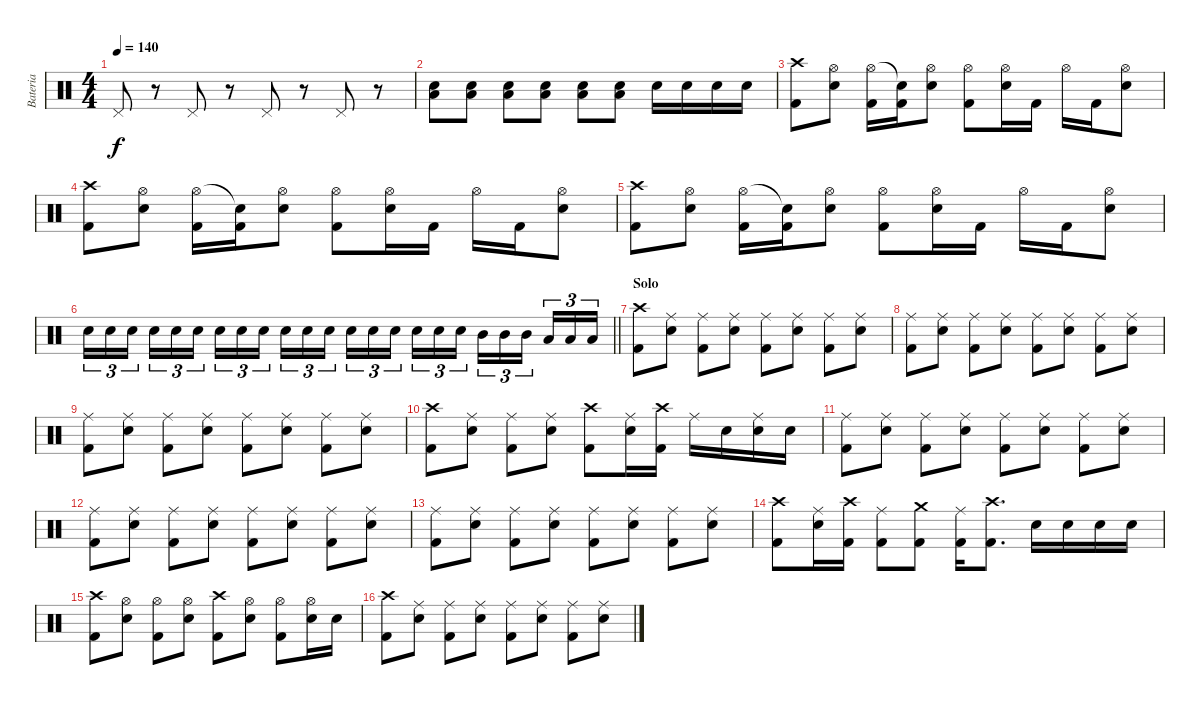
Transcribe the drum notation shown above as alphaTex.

\track ("Bateria" "Bateria") {instrument percussion}
\staff {score}
\articulation defaults
\ts (4 4)
\tempo 140
\clef neutral
\ks c "Pedal Hi-Hat (hit)".8{dy f}
r.8 "Pedal Hi-Hat (hit)".8 r.8 "Pedal Hi-Hat (hit)".8 r.8 "Pedal Hi-Hat (hit)".8 r.8 |
("Electric Snare (hit)" "Low Floor Tom (hit)").8 ("Electric Snare (hit)" "Low Floor Tom (hit)").8 ("Electric Snare (hit)" "Low Floor Tom (hit)").8 ("Electric Snare (hit)" "Low Floor Tom (hit)").8 ("Electric Snare (hit)" "Low Floor Tom (hit)").8 ("Electric Snare (hit)" "Low Floor Tom (hit)").8 "Electric Snare (hit)".16 "Electric Snare (hit)".16 "Electric Snare (hit)".16 "Electric Snare (hit)".16 |
("Crash high (hit)" "Kick (hit) 2").8 ("Hi-Hat (open)" "Electric Snare (hit)").8 ("Hi-Hat (open)" "Kick (hit) 2").16 ("Snare (hit)"{t} "Kick (hit) 2").16 ("Hi-Hat (open)" "Electric Snare (hit)").8 ("Hi-Hat (open)" "Kick (hit) 2").8 ("Hi-Hat (open)" "Electric Snare (hit)").16 "Kick (hit) 2".16 "Hi-Hat (open)".16 "Kick (hit) 2".16 ("Hi-Hat (open)" "Electric Snare (hit)").8 |
("Crash high (hit)" "Kick (hit) 2").8 ("Hi-Hat (open)" "Electric Snare (hit)").8 ("Hi-Hat (open)" "Kick (hit) 2").16 ("Snare (hit)"{t} "Kick (hit) 2").16 ("Hi-Hat (open)" "Electric Snare (hit)").8 ("Hi-Hat (open)" "Kick (hit) 2").8 ("Hi-Hat (open)" "Electric Snare (hit)").16 "Kick (hit) 2".16 "Hi-Hat (open)".16 "Kick (hit) 2".16 ("Hi-Hat (open)" "Electric Snare (hit)").8 |
("Crash high (hit)" "Kick (hit) 2").8 ("Hi-Hat (open)" "Electric Snare (hit)").8 ("Hi-Hat (open)" "Kick (hit) 2").16 ("Snare (hit)"{t} "Kick (hit) 2").16 ("Hi-Hat (open)" "Electric Snare (hit)").8 ("Hi-Hat (open)" "Kick (hit) 2").8 ("Hi-Hat (open)" "Electric Snare (hit)").16 "Kick (hit) 2".16 "Hi-Hat (open)".16 "Kick (hit) 2".16 ("Hi-Hat (open)" "Electric Snare (hit)").8 |
\barLineRight lightlight "Electric Snare (hit)".16{tu (3 2)} "Electric Snare (hit)".16{tu (3 2)} "Electric Snare (hit)".16{tu (3 2) beam splitsecondary} "Electric Snare (hit)".16{tu (3 2)} "Electric Snare (hit)".16{tu (3 2)} "Electric Snare (hit)".16{tu (3 2)} "Electric Snare (hit)".16{tu (3 2)} "Electric Snare (hit)".16{tu (3 2)} "Electric Snare (hit)".16{tu (3 2) beam splitsecondary} "Electric Snare (hit)".16{tu (3 2)} "Electric Snare (hit)".16{tu (3 2)} "Electric Snare (hit)".16{tu (3 2)} "Electric Snare (hit)".16{tu (3 2)} "Electric Snare (hit)".16{tu (3 2)} "Electric Snare (hit)".16{tu (3 2) beam splitsecondary} "Electric Snare (hit)".16{tu (3 2)} "Electric Snare (hit)".16{tu (3 2)} "Electric Snare (hit)".16{tu (3 2)} "Mid Tom (hit)".16{tu (3 2)} "Mid Tom (hit)".16{tu (3 2)} "Mid Tom (hit)".16{tu (3 2) beam splitsecondary} "Low Tom (hit)".16{tu (3 2)} "Low Tom (hit)".16{tu (3 2)} "Low Tom (hit)".16{tu (3 2)}
|
\section ("" "Solo")
("Crash high (hit)" "Kick (hit) 2").8 ("Ride (middle)" "Electric Snare (hit)").8 ("Ride (middle)" "Kick (hit) 2").8 ("Ride (middle)" "Electric Snare (hit)").8 ("Ride (middle)" "Kick (hit) 2").8 ("Ride (middle)" "Electric Snare (hit)").8 ("Ride (middle)" "Kick (hit) 2").8 ("Ride (middle)" "Electric Snare (hit)").8 |
("Ride (middle)" "Kick (hit) 2").8 ("Ride (middle)" "Electric Snare (hit)").8 ("Ride (middle)" "Kick (hit) 2").8 ("Ride (middle)" "Electric Snare (hit)").8 ("Ride (middle)" "Kick (hit) 2").8 ("Ride (middle)" "Electric Snare (hit)").8 ("Ride (middle)" "Kick (hit) 2").8 ("Ride (middle)" "Electric Snare (hit)").8 |
("Ride (middle)" "Kick (hit) 2").8 ("Ride (middle)" "Electric Snare (hit)").8 ("Ride (middle)" "Kick (hit) 2").8 ("Ride (middle)" "Electric Snare (hit)").8 ("Ride (middle)" "Kick (hit) 2").8 ("Ride (middle)" "Electric Snare (hit)").8 ("Ride (middle)" "Kick (hit) 2").8 ("Ride (middle)" "Electric Snare (hit)").8 |
("Crash high (hit)" "Kick (hit) 2").8 ("Ride (middle)" "Electric Snare (hit)").8 ("Ride (middle)" "Kick (hit) 2").8 ("Ride (middle)" "Electric Snare (hit)").8 ("Crash high (hit)" "Kick (hit) 2").8 ("Ride (middle)" "Electric Snare (hit)").16 ("Crash high (hit)" "Kick (hit) 2").16 "Ride (middle)".16 "Electric Snare (hit)".16 ("Ride (middle)" "Electric Snare (hit)").16 "Electric Snare (hit)".16 |
("Ride (middle)" "Kick (hit) 2").8 ("Ride (middle)" "Electric Snare (hit)").8 ("Ride (middle)" "Kick (hit) 2").8 ("Ride (middle)" "Electric Snare (hit)").8 ("Ride (middle)" "Kick (hit) 2").8 ("Ride (middle)" "Electric Snare (hit)").8 ("Ride (middle)" "Kick (hit) 2").8 ("Ride (middle)" "Electric Snare (hit)").8 |
("Ride (middle)" "Kick (hit) 2").8 ("Ride (middle)" "Electric Snare (hit)").8 ("Ride (middle)" "Kick (hit) 2").8 ("Ride (middle)" "Electric Snare (hit)").8 ("Ride (middle)" "Kick (hit) 2").8 ("Ride (middle)" "Electric Snare (hit)").8 ("Ride (middle)" "Kick (hit) 2").8 ("Ride (middle)" "Electric Snare (hit)").8 |
("Ride (middle)" "Kick (hit) 2").8 ("Ride (middle)" "Electric Snare (hit)").8 ("Ride (middle)" "Kick (hit) 2").8 ("Ride (middle)" "Electric Snare (hit)").8 ("Ride (middle)" "Kick (hit) 2").8 ("Ride (middle)" "Electric Snare (hit)").8 ("Ride (middle)" "Kick (hit) 2").8 ("Ride (middle)" "Electric Snare (hit)").8 |
("Crash high (hit)" "Kick (hit) 2").8 ("Ride (middle)" "Electric Snare (hit)").16 ("Crash high (hit)" "Kick (hit) 2").16 ("Ride (middle)" "Kick (hit) 2").8 ("Crash medium (hit)" "Kick (hit) 2").8 ("Ride (middle)" "Kick (hit) 2").16 ("Crash high (hit)" "Kick (hit) 2").8{d} "Electric Snare (hit)".16 "Electric Snare (hit)".16 "Electric Snare (hit)".16 "Electric Snare (hit)".16 |
("Crash high (hit)" "Kick (hit) 2").8 ("Hi-Hat (open)" "Electric Snare (hit)").8 ("Hi-Hat (open)" "Kick (hit) 2").8 ("Hi-Hat (open)" "Electric Snare (hit)").8 ("Crash high (hit)" "Kick (hit) 2").8 ("Hi-Hat (open)" "Electric Snare (hit)").8 ("Hi-Hat (open)" "Kick (hit) 2").8 ("Hi-Hat (open)" "Electric Snare (hit)").16 "Electric Snare (hit)".16 |
("Crash high (hit)" "Kick (hit) 2").8 ("Ride (middle)" "Electric Snare (hit)").8 ("Ride (middle)" "Kick (hit) 2").8 ("Ride (middle)" "Electric Snare (hit)").8 ("Ride (middle)" "Kick (hit) 2").8 ("Ride (middle)" "Electric Snare (hit)").8 ("Ride (middle)" "Kick (hit) 2").8 ("Ride (middle)" "Electric Snare (hit)").8
